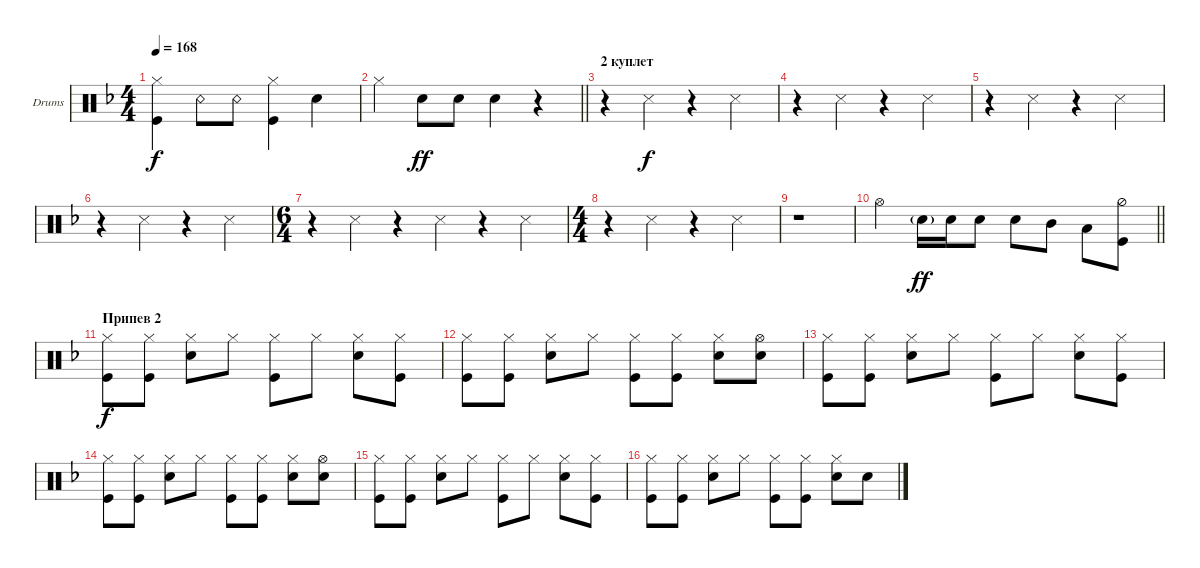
\defaultSystemsLayout 4
\bracketExtendMode groupsimilarinstruments
\firstSystemTrackNameOrientation horizontal
\otherSystemsTrackNameOrientation horizontal
\track ("Drumkit" "Drums") {instrument percussion}
\staff {score}
\articulation defaults
\ts (4 4)
\tempo 168
\clef neutral
\scale
0.333333
\ks f
("Kick (hit)" "Hi-Hat (closed)").4{dy f} "Snare (rim shot)".8 "Snare (rim shot)".8 ("Kick (hit)" "Hi-Hat (closed)").4 "Snare (hit) 2".4 |
\scale
0.333333
\barLineRight lightlight "Hi-Hat (closed)".4 "Snare (hit) 2".8{dy ff} "Snare (hit) 2".8 "Snare (hit) 2".4
r.4 |
\section ("" "2 куплет")
\scale
0.333333 r.4 "Snare (side stick) 3".4{dy f} r.4 "Snare (side stick) 3".4 |
\scale
0.333333 r.4 "Snare (side stick) 3".4 r.4 "Snare (side stick) 3".4 |
\scale
0.25 r.4 "Snare (side stick) 3".4 r.4 "Snare (side stick) 3".4 |
\scale
0.25 r.4 "Snare (side stick) 3".4 r.4 "Snare (side stick) 3".4 |
\ts (6 4)
\scale
0.5 r.4 "Snare (side stick) 3".4 r.4 "Snare (side stick) 3".4 r.4 "Snare (side stick) 3".4 |
\ts (4 4)
\scale
0.5 r.4 "Snare (side stick) 3".4 r.4 "Snare (side stick) 3".4 |
\scale
0.25 r.1 |
\scale
0.25
\barLineRight lightlight "Hi-Hat (open)".4 "Snare (hit) 2"{g}.16{dy ff} "Snare (hit) 2".16 "Snare (hit) 2".8 "Snare (hit) 2".8 "Mid Tom (hit)".8 "Low Tom (hit)".8
("Kick (hit)" "Hi-Hat (half)").8 |
\section ("" "Припев 2")
\scale
0.333333 ("Hi-Hat (closed)" "Kick (hit)").8{dy f} ("Hi-Hat (closed)" "Kick (hit)").8 ("Hi-Hat (closed)" "Snare (hit) 2").8 "Hi-Hat (closed)".8 ("Hi-Hat (closed)" "Kick (hit)").8 "Hi-Hat (closed)".8 ("Hi-Hat (closed)" "Snare (hit) 2").8 ("Hi-Hat (closed)" "Kick (hit)").8 |
\scale
0.333333 ("Hi-Hat (closed)" "Kick (hit)").8 ("Hi-Hat (closed)" "Kick (hit)").8 ("Hi-Hat (closed)" "Snare (hit) 2").8 "Hi-Hat (closed)".8 ("Hi-Hat (closed)" "Kick (hit)").8 ("Hi-Hat (closed)" "Kick (hit)").8 ("Hi-Hat (closed)" "Snare (hit) 2").8 ("Hi-Hat (open)" "Snare (hit) 2").8 |
\scale
0.333333 ("Hi-Hat (closed)" "Kick (hit)").8 ("Hi-Hat (closed)" "Kick (hit)").8 ("Hi-Hat (closed)" "Snare (hit) 2").8 "Hi-Hat (closed)".8 ("Hi-Hat (closed)" "Kick (hit)").8 "Hi-Hat (closed)".8 ("Hi-Hat (closed)" "Snare (hit) 2").8 ("Hi-Hat (closed)" "Kick (hit)").8 |
\scale
0.333333 ("Hi-Hat (closed)" "Kick (hit)").8 ("Hi-Hat (closed)" "Kick (hit)").8 ("Hi-Hat (closed)" "Snare (hit) 2").8 "Hi-Hat (closed)".8 ("Hi-Hat (closed)" "Kick (hit)").8 ("Hi-Hat (closed)" "Kick (hit)").8 ("Hi-Hat (closed)" "Snare (hit) 2").8 ("Hi-Hat (open)" "Snare (hit) 2").8 |
\scale
0.333333 ("Hi-Hat (closed)" "Kick (hit)").8 ("Hi-Hat (closed)" "Kick (hit)").8 ("Hi-Hat (closed)" "Snare (hit) 2").8 "Hi-Hat (closed)".8 ("Hi-Hat (closed)" "Kick (hit)").8 "Hi-Hat (closed)".8 ("Hi-Hat (closed)" "Snare (hit) 2").8 ("Hi-Hat (closed)" "Kick (hit)").8 |
\scale
0.333333 ("Hi-Hat (closed)" "Kick (hit)").8 ("Hi-Hat (closed)" "Kick (hit)").8 ("Hi-Hat (closed)" "Snare (hit) 2").8 "Hi-Hat (closed)".8 ("Hi-Hat (closed)" "Kick (hit)").8 ("Hi-Hat (closed)" "Kick (hit)").8 ("Hi-Hat (closed)" "Snare (hit) 2").8 "Snare (hit) 2".8
